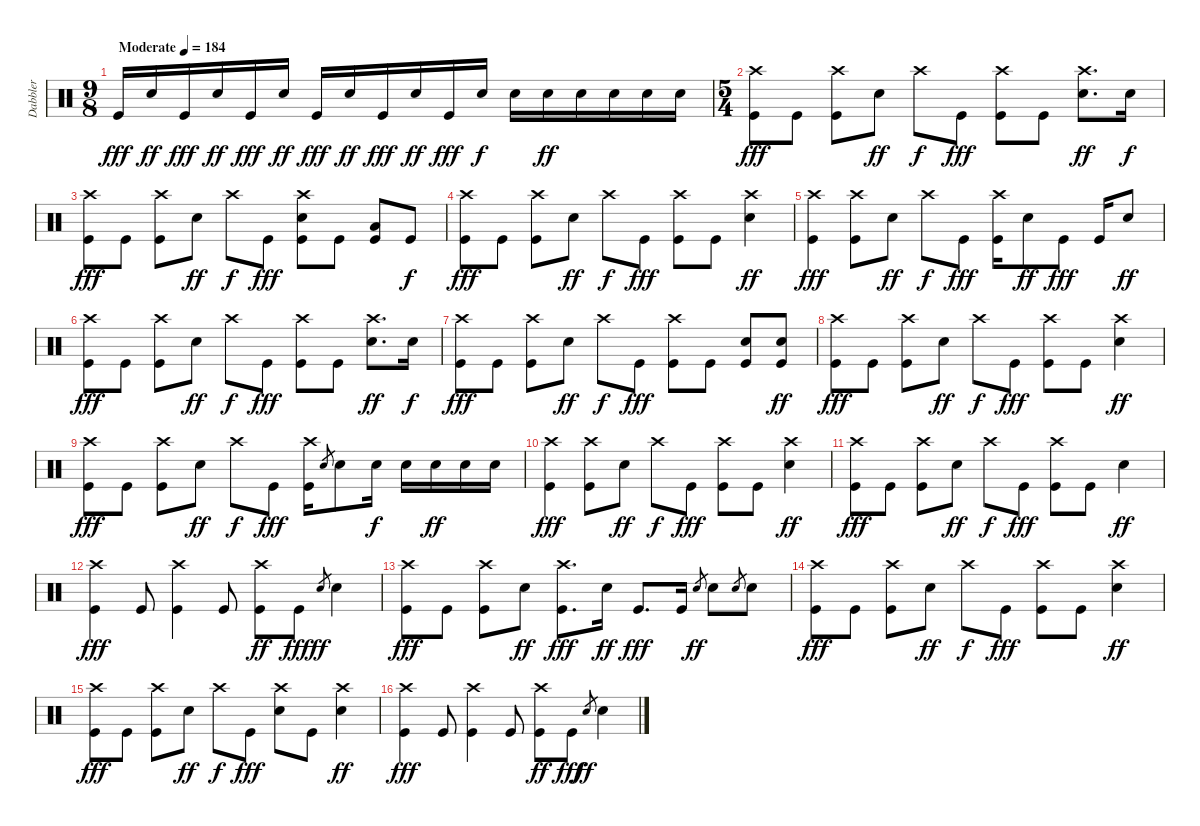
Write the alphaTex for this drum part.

\track ("Dabbler" "Dabbler") {instrument percussion}
\staff {score}
\articulation defaults
\ts (9 8)
\tempo (184 "Moderate")
\clef neutral
\ks c "Kick (hit)".16{dy fff} "Electric Snare (hit)".16{dy ff} "Kick (hit)".16{dy fff} "Electric Snare (hit)".16{dy ff} "Kick (hit)".16{dy fff} "Electric Snare (hit)".16{dy ff} "Kick (hit)".16{dy fff} "Electric Snare (hit)".16{dy ff} "Kick (hit)".16{dy fff} "Electric Snare (hit)".16{dy ff} "Kick (hit)".16{dy fff} "Electric Snare (hit)".16{dy f} "Electric Snare (hit)".16 "Electric Snare (hit)".16{dy ff} "Electric Snare (hit)".16 "Electric Snare (hit)".16 "Electric Snare (hit)".16 "Electric Snare (hit)".16
|
\ts (5 4)
("Crash high (hit)" "Kick (hit)").8{dy fff} "Kick (hit)".8 ("Crash high (hit)" "Kick (hit)").8 "Electric Snare (hit)".8{dy ff} "Crash high (hit)".8{dy f} "Kick (hit)".8{dy fff} ("Crash high (hit)" "Kick (hit)").8 "Kick (hit)".8 ("Crash high (hit)" "Electric Snare (hit)").8{d dy ff} "Electric Snare (hit)".16{dy f} |
("Crash high (hit)" "Kick (hit)").8{dy fff} "Kick (hit)".8 ("Crash high (hit)" "Kick (hit)").8 "Electric Snare (hit)".8{dy ff} "Crash high (hit)".8{dy f} "Kick (hit)".8{dy fff} ("Crash high (hit)" "Electric Snare (hit)" "Kick (hit)").8 "Kick (hit)".8 ("Low Tom (hit)" "Kick (hit)").8 "Kick (hit)".8{dy f} |
("Crash high (hit)" "Kick (hit)").8{dy fff} "Kick (hit)".8 ("Crash high (hit)" "Kick (hit)").8 "Electric Snare (hit)".8{dy ff} "Crash high (hit)".8{dy f} "Kick (hit)".8{dy fff} ("Crash high (hit)" "Kick (hit)").8 "Kick (hit)".8 ("Crash high (hit)" "Electric Snare (hit)").4{dy ff} |
("Crash high (hit)" "Kick (hit)").4{dy fff} ("Crash high (hit)" "Kick (hit)").8 "Electric Snare (hit)".8{dy ff} "Crash high (hit)".8{dy f} "Kick (hit)".8{dy fff} ("Crash high (hit)" "Kick (hit)").16 "Electric Snare (hit)".8{dy ff} "Kick (hit)".8{dy fff} "Kick (hit)".16 "Electric Snare (hit)".8{dy ff} |
("Crash high (hit)" "Kick (hit)").8{dy fff} "Kick (hit)".8 ("Crash high (hit)" "Kick (hit)").8 "Electric Snare (hit)".8{dy ff} "Crash high (hit)".8{dy f} "Kick (hit)".8{dy fff} ("Crash high (hit)" "Kick (hit)").8 "Kick (hit)".8 ("Crash high (hit)" "Electric Snare (hit)").8{d dy ff} "Electric Snare (hit)".16{dy f} |
("Crash high (hit)" "Kick (hit)").8{dy fff} "Kick (hit)".8 ("Crash high (hit)" "Kick (hit)").8 "Electric Snare (hit)".8{dy ff} "Crash high (hit)".8{dy f} "Kick (hit)".8{dy fff} ("Crash high (hit)" "Kick (hit)").8 "Kick (hit)".8 ("Electric Snare (hit)" "Kick (hit)").8 ("Electric Snare (hit)" "Kick (hit)").8{dy ff} |
("Crash high (hit)" "Kick (hit)").8{dy fff} "Kick (hit)".8 ("Crash high (hit)" "Kick (hit)").8 "Electric Snare (hit)".8{dy ff} "Crash high (hit)".8{dy f} "Kick (hit)".8{dy fff} ("Crash high (hit)" "Kick (hit)").8 "Kick (hit)".8 ("Crash high (hit)" "Electric Snare (hit)").4{dy ff} |
("Crash high (hit)" "Kick (hit)").8{dy fff} "Kick (hit)".8 ("Crash high (hit)" "Kick (hit)").8 "Electric Snare (hit)".8{dy ff} "Crash high (hit)".8{dy f} "Kick (hit)".8{dy fff} ("Crash high (hit)" "Kick (hit)").16 "Electric Snare (hit)".8{gr} "Electric Snare (hit)".8 "Electric Snare (hit)".16{dy f} "Electric Snare (hit)".16 "Electric Snare (hit)".16{dy ff} "Electric Snare (hit)".16 "Electric Snare (hit)".16 |
("Crash high (hit)" "Kick (hit)").4{dy fff} ("Crash high (hit)" "Kick (hit)").8 "Electric Snare (hit)".8{dy ff} "Crash high (hit)".8{dy f} "Kick (hit)".8{dy fff} ("Crash high (hit)" "Kick (hit)").8 "Kick (hit)".8 ("Crash high (hit)" "Electric Snare (hit)").4{dy ff} |
("Crash high (hit)" "Kick (hit)").8{dy fff} "Kick (hit)".8 ("Crash high (hit)" "Kick (hit)").8 "Electric Snare (hit)".8{dy ff} "Crash high (hit)".8{dy f} "Kick (hit)".8{dy fff} ("Crash high (hit)" "Kick (hit)").8 "Kick (hit)".8 "Electric Snare (hit)".4{dy ff} |
("Crash high (hit)" "Kick (hit)").4{dy fff} "Kick (hit)".8 ("Crash high (hit)" "Kick (hit)").4 "Kick (hit)".8 ("Crash high (hit)" "Kick (hit)").8{dy ff} "Kick (hit)".8{dy fff} "Electric Snare (hit)".8{gr dy ff} "Electric Snare (hit)".4 |
("Crash high (hit)" "Kick (hit)").8{dy fff} "Kick (hit)".8 ("Crash high (hit)" "Kick (hit)").8 "Electric Snare (hit)".8{dy ff} ("Crash high (hit)" "Kick (hit)").8{d dy fff} "Electric Snare (hit)".16{dy ff} "Kick (hit)".8{d dy fff} "Kick (hit)".16 "Electric Snare (hit)".8{gr dy ff} "Electric Snare (hit)".8 "Electric Snare (hit)".8{gr} "Electric Snare (hit)".8 |
("Crash high (hit)" "Kick (hit)").8{dy fff} "Kick (hit)".8 ("Crash high (hit)" "Kick (hit)").8 "Electric Snare (hit)".8{dy ff} "Crash high (hit)".8{dy f} "Kick (hit)".8{dy fff} ("Crash high (hit)" "Kick (hit)").8 "Kick (hit)".8 ("Crash high (hit)" "Electric Snare (hit)").4{dy ff} |
("Crash high (hit)" "Kick (hit)").8{dy fff} "Kick (hit)".8 ("Crash high (hit)" "Kick (hit)").8 "Electric Snare (hit)".8{dy ff} "Crash high (hit)".8{dy f} "Kick (hit)".8{dy fff} ("Crash high (hit)" "Electric Snare (hit)").8 "Kick (hit)".8 ("Crash high (hit)" "Electric Snare (hit)").4{dy ff} |
("Crash high (hit)" "Kick (hit)").4{dy fff} "Kick (hit)".8 ("Crash high (hit)" "Kick (hit)").4 "Kick (hit)".8 ("Crash high (hit)" "Kick (hit)").8{dy ff} "Kick (hit)".8{dy fff} "Electric Snare (hit)".8{gr dy ff} "Electric Snare (hit)".4
